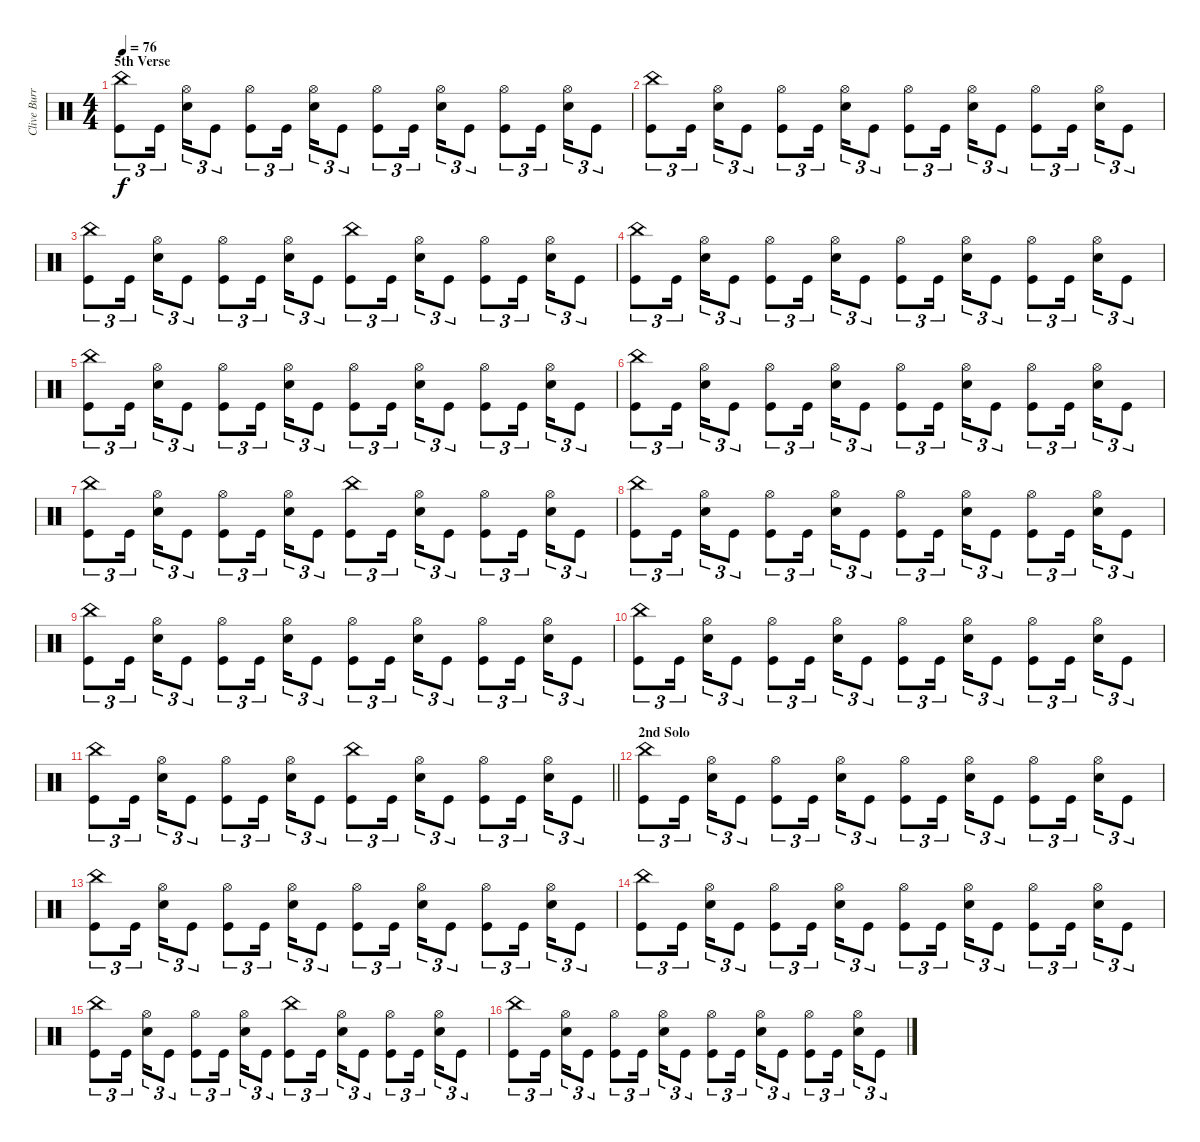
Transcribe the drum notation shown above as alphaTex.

\track ("Clive Burr" "Clive Burr") {instrument percussion}
\staff {score}
\articulation defaults
\ts (4 4)
\section ("" "5th Verse")
\tempo 76
\clef neutral
\ks c
("China (hit)" "Kick (hit)").8{tu (3 2) dy f} "Kick (hit)".16{tu (3 2) beam splitsecondary} ("Hi-Hat (open)" "Electric Snare (hit)").16{tu (3 2)} "Kick (hit)".8{tu (3 2)} ("Hi-Hat (open)" "Kick (hit)").8{tu (3 2)} "Kick (hit)".16{tu (3 2) beam splitsecondary} ("Hi-Hat (open)" "Electric Snare (hit)").16{tu (3 2)} "Kick (hit)".8{tu (3 2)} ("Hi-Hat (open)" "Kick (hit)").8{tu (3 2)} "Kick (hit)".16{tu (3 2) beam splitsecondary} ("Hi-Hat (open)" "Electric Snare (hit)").16{tu (3 2)} "Kick (hit)".8{tu (3 2)} ("Hi-Hat (open)" "Kick (hit)").8{tu (3 2)} "Kick (hit)".16{tu (3 2) beam splitsecondary} ("Hi-Hat (open)" "Electric Snare (hit)").16{tu (3 2)} "Kick (hit)".8{tu (3 2)} |
("China (hit)" "Kick (hit)").8{tu (3 2)} "Kick (hit)".16{tu (3 2) beam splitsecondary} ("Hi-Hat (open)" "Electric Snare (hit)").16{tu (3 2)} "Kick (hit)".8{tu (3 2)} ("Hi-Hat (open)" "Kick (hit)").8{tu (3 2)} "Kick (hit)".16{tu (3 2) beam splitsecondary} ("Hi-Hat (open)" "Electric Snare (hit)").16{tu (3 2)} "Kick (hit)".8{tu (3 2)} ("Hi-Hat (open)" "Kick (hit)").8{tu (3 2)} "Kick (hit)".16{tu (3 2) beam splitsecondary} ("Hi-Hat (open)" "Electric Snare (hit)").16{tu (3 2)} "Kick (hit)".8{tu (3 2)} ("Hi-Hat (open)" "Kick (hit)").8{tu (3 2)} "Kick (hit)".16{tu (3 2) beam splitsecondary} ("Hi-Hat (open)" "Electric Snare (hit)").16{tu (3 2)} "Kick (hit)".8{tu (3 2)} |
("China (hit)" "Kick (hit)").8{tu (3 2)} "Kick (hit)".16{tu (3 2) beam splitsecondary} ("Hi-Hat (open)" "Electric Snare (hit)").16{tu (3 2)} "Kick (hit)".8{tu (3 2)} ("Hi-Hat (open)" "Kick (hit)").8{tu (3 2)} "Kick (hit)".16{tu (3 2) beam splitsecondary} ("Hi-Hat (open)" "Electric Snare (hit)").16{tu (3 2)} "Kick (hit)".8{tu (3 2)} ("China (hit)" "Kick (hit)").8{tu (3 2)} "Kick (hit)".16{tu (3 2) beam splitsecondary} ("Hi-Hat (open)" "Electric Snare (hit)").16{tu (3 2)} "Kick (hit)".8{tu (3 2)} ("Hi-Hat (open)" "Kick (hit)").8{tu (3 2)} "Kick (hit)".16{tu (3 2) beam splitsecondary} ("Hi-Hat (open)" "Electric Snare (hit)").16{tu (3 2)} "Kick (hit)".8{tu (3 2)} |
("China (hit)" "Kick (hit)").8{tu (3 2)} "Kick (hit)".16{tu (3 2) beam splitsecondary} ("Hi-Hat (open)" "Electric Snare (hit)").16{tu (3 2)} "Kick (hit)".8{tu (3 2)} ("Hi-Hat (open)" "Kick (hit)").8{tu (3 2)} "Kick (hit)".16{tu (3 2) beam splitsecondary} ("Hi-Hat (open)" "Electric Snare (hit)").16{tu (3 2)} "Kick (hit)".8{tu (3 2)} ("Hi-Hat (open)" "Kick (hit)").8{tu (3 2)} "Kick (hit)".16{tu (3 2) beam splitsecondary} ("Hi-Hat (open)" "Electric Snare (hit)").16{tu (3 2)} "Kick (hit)".8{tu (3 2)} ("Hi-Hat (open)" "Kick (hit)").8{tu (3 2)} "Kick (hit)".16{tu (3 2) beam splitsecondary} ("Hi-Hat (open)" "Electric Snare (hit)").16{tu (3 2)} "Kick (hit)".8{tu (3 2)} |
("China (hit)" "Kick (hit)").8{tu (3 2)} "Kick (hit)".16{tu (3 2) beam splitsecondary} ("Hi-Hat (open)" "Electric Snare (hit)").16{tu (3 2)} "Kick (hit)".8{tu (3 2)} ("Hi-Hat (open)" "Kick (hit)").8{tu (3 2)} "Kick (hit)".16{tu (3 2) beam splitsecondary} ("Hi-Hat (open)" "Electric Snare (hit)").16{tu (3 2)} "Kick (hit)".8{tu (3 2)} ("Hi-Hat (open)" "Kick (hit)").8{tu (3 2)} "Kick (hit)".16{tu (3 2) beam splitsecondary} ("Hi-Hat (open)" "Electric Snare (hit)").16{tu (3 2)} "Kick (hit)".8{tu (3 2)} ("Hi-Hat (open)" "Kick (hit)").8{tu (3 2)} "Kick (hit)".16{tu (3 2) beam splitsecondary} ("Hi-Hat (open)" "Electric Snare (hit)").16{tu (3 2)} "Kick (hit)".8{tu (3 2)} |
("China (hit)" "Kick (hit)").8{tu (3 2)} "Kick (hit)".16{tu (3 2) beam splitsecondary} ("Hi-Hat (open)" "Electric Snare (hit)").16{tu (3 2)} "Kick (hit)".8{tu (3 2)} ("Hi-Hat (open)" "Kick (hit)").8{tu (3 2)} "Kick (hit)".16{tu (3 2) beam splitsecondary} ("Hi-Hat (open)" "Electric Snare (hit)").16{tu (3 2)} "Kick (hit)".8{tu (3 2)} ("Hi-Hat (open)" "Kick (hit)").8{tu (3 2)} "Kick (hit)".16{tu (3 2) beam splitsecondary} ("Hi-Hat (open)" "Electric Snare (hit)").16{tu (3 2)} "Kick (hit)".8{tu (3 2)} ("Hi-Hat (open)" "Kick (hit)").8{tu (3 2)} "Kick (hit)".16{tu (3 2) beam splitsecondary} ("Hi-Hat (open)" "Electric Snare (hit)").16{tu (3 2)} "Kick (hit)".8{tu (3 2)} |
("China (hit)" "Kick (hit)").8{tu (3 2)} "Kick (hit)".16{tu (3 2) beam splitsecondary} ("Hi-Hat (open)" "Electric Snare (hit)").16{tu (3 2)} "Kick (hit)".8{tu (3 2)} ("Hi-Hat (open)" "Kick (hit)").8{tu (3 2)} "Kick (hit)".16{tu (3 2) beam splitsecondary} ("Hi-Hat (open)" "Electric Snare (hit)").16{tu (3 2)} "Kick (hit)".8{tu (3 2)} ("China (hit)" "Kick (hit)").8{tu (3 2)} "Kick (hit)".16{tu (3 2) beam splitsecondary} ("Hi-Hat (open)" "Electric Snare (hit)").16{tu (3 2)} "Kick (hit)".8{tu (3 2)} ("Hi-Hat (open)" "Kick (hit)").8{tu (3 2)} "Kick (hit)".16{tu (3 2) beam splitsecondary} ("Hi-Hat (open)" "Electric Snare (hit)").16{tu (3 2)} "Kick (hit)".8{tu (3 2)} |
("China (hit)" "Kick (hit)").8{tu (3 2)} "Kick (hit)".16{tu (3 2) beam splitsecondary} ("Hi-Hat (open)" "Electric Snare (hit)").16{tu (3 2)} "Kick (hit)".8{tu (3 2)} ("Hi-Hat (open)" "Kick (hit)").8{tu (3 2)} "Kick (hit)".16{tu (3 2) beam splitsecondary} ("Hi-Hat (open)" "Electric Snare (hit)").16{tu (3 2)} "Kick (hit)".8{tu (3 2)} ("Hi-Hat (open)" "Kick (hit)").8{tu (3 2)} "Kick (hit)".16{tu (3 2) beam splitsecondary} ("Hi-Hat (open)" "Electric Snare (hit)").16{tu (3 2)} "Kick (hit)".8{tu (3 2)} ("Hi-Hat (open)" "Kick (hit)").8{tu (3 2)} "Kick (hit)".16{tu (3 2) beam splitsecondary} ("Hi-Hat (open)" "Electric Snare (hit)").16{tu (3 2)} "Kick (hit)".8{tu (3 2)} |
("China (hit)" "Kick (hit)").8{tu (3 2)} "Kick (hit)".16{tu (3 2) beam splitsecondary} ("Hi-Hat (open)" "Electric Snare (hit)").16{tu (3 2)} "Kick (hit)".8{tu (3 2)} ("Hi-Hat (open)" "Kick (hit)").8{tu (3 2)} "Kick (hit)".16{tu (3 2) beam splitsecondary} ("Hi-Hat (open)" "Electric Snare (hit)").16{tu (3 2)} "Kick (hit)".8{tu (3 2)} ("Hi-Hat (open)" "Kick (hit)").8{tu (3 2)} "Kick (hit)".16{tu (3 2) beam splitsecondary} ("Hi-Hat (open)" "Electric Snare (hit)").16{tu (3 2)} "Kick (hit)".8{tu (3 2)} ("Hi-Hat (open)" "Kick (hit)").8{tu (3 2)} "Kick (hit)".16{tu (3 2) beam splitsecondary} ("Hi-Hat (open)" "Electric Snare (hit)").16{tu (3 2)} "Kick (hit)".8{tu (3 2)} |
("China (hit)" "Kick (hit)").8{tu (3 2)} "Kick (hit)".16{tu (3 2) beam splitsecondary} ("Hi-Hat (open)" "Electric Snare (hit)").16{tu (3 2)} "Kick (hit)".8{tu (3 2)} ("Hi-Hat (open)" "Kick (hit)").8{tu (3 2)} "Kick (hit)".16{tu (3 2) beam splitsecondary} ("Hi-Hat (open)" "Electric Snare (hit)").16{tu (3 2)} "Kick (hit)".8{tu (3 2)} ("Hi-Hat (open)" "Kick (hit)").8{tu (3 2)} "Kick (hit)".16{tu (3 2) beam splitsecondary} ("Hi-Hat (open)" "Electric Snare (hit)").16{tu (3 2)} "Kick (hit)".8{tu (3 2)} ("Hi-Hat (open)" "Kick (hit)").8{tu (3 2)} "Kick (hit)".16{tu (3 2) beam splitsecondary} ("Hi-Hat (open)" "Electric Snare (hit)").16{tu (3 2)} "Kick (hit)".8{tu (3 2)} |
\barLineRight lightlight
("China (hit)" "Kick (hit)").8{tu (3 2)} "Kick (hit)".16{tu (3 2) beam splitsecondary} ("Hi-Hat (open)" "Electric Snare (hit)").16{tu (3 2)} "Kick (hit)".8{tu (3 2)} ("Hi-Hat (open)" "Kick (hit)").8{tu (3 2)} "Kick (hit)".16{tu (3 2) beam splitsecondary} ("Hi-Hat (open)" "Electric Snare (hit)").16{tu (3 2)} "Kick (hit)".8{tu (3 2)} ("China (hit)" "Kick (hit)").8{tu (3 2)} "Kick (hit)".16{tu (3 2) beam splitsecondary} ("Hi-Hat (open)" "Electric Snare (hit)").16{tu (3 2)} "Kick (hit)".8{tu (3 2)} ("Hi-Hat (open)" "Kick (hit)").8{tu (3 2)} "Kick (hit)".16{tu (3 2) beam splitsecondary} ("Hi-Hat (open)" "Electric Snare (hit)").16{tu (3 2)} "Kick (hit)".8{tu (3 2)} |
\section ("" "2nd Solo")
("China (hit)" "Kick (hit)").8{tu (3 2)} "Kick (hit)".16{tu (3 2) beam splitsecondary} ("Hi-Hat (open)" "Electric Snare (hit)").16{tu (3 2)} "Kick (hit)".8{tu (3 2)} ("Hi-Hat (open)" "Kick (hit)").8{tu (3 2)} "Kick (hit)".16{tu (3 2) beam splitsecondary} ("Hi-Hat (open)" "Electric Snare (hit)").16{tu (3 2)} "Kick (hit)".8{tu (3 2)} ("Hi-Hat (open)" "Kick (hit)").8{tu (3 2)} "Kick (hit)".16{tu (3 2) beam splitsecondary} ("Hi-Hat (open)" "Electric Snare (hit)").16{tu (3 2)} "Kick (hit)".8{tu (3 2)} ("Hi-Hat (open)" "Kick (hit)").8{tu (3 2)} "Kick (hit)".16{tu (3 2) beam splitsecondary} ("Hi-Hat (open)" "Electric Snare (hit)").16{tu (3 2)} "Kick (hit)".8{tu (3 2)} |
("China (hit)" "Kick (hit)").8{tu (3 2)} "Kick (hit)".16{tu (3 2) beam splitsecondary} ("Hi-Hat (open)" "Electric Snare (hit)").16{tu (3 2)} "Kick (hit)".8{tu (3 2)} ("Hi-Hat (open)" "Kick (hit)").8{tu (3 2)} "Kick (hit)".16{tu (3 2) beam splitsecondary} ("Hi-Hat (open)" "Electric Snare (hit)").16{tu (3 2)} "Kick (hit)".8{tu (3 2)} ("Hi-Hat (open)" "Kick (hit)").8{tu (3 2)} "Kick (hit)".16{tu (3 2) beam splitsecondary} ("Hi-Hat (open)" "Electric Snare (hit)").16{tu (3 2)} "Kick (hit)".8{tu (3 2)} ("Hi-Hat (open)" "Kick (hit)").8{tu (3 2)} "Kick (hit)".16{tu (3 2) beam splitsecondary} ("Hi-Hat (open)" "Electric Snare (hit)").16{tu (3 2)} "Kick (hit)".8{tu (3 2)} |
("China (hit)" "Kick (hit)").8{tu (3 2)} "Kick (hit)".16{tu (3 2) beam splitsecondary} ("Hi-Hat (open)" "Electric Snare (hit)").16{tu (3 2)} "Kick (hit)".8{tu (3 2)} ("Hi-Hat (open)" "Kick (hit)").8{tu (3 2)} "Kick (hit)".16{tu (3 2) beam splitsecondary} ("Hi-Hat (open)" "Electric Snare (hit)").16{tu (3 2)} "Kick (hit)".8{tu (3 2)} ("Hi-Hat (open)" "Kick (hit)").8{tu (3 2)} "Kick (hit)".16{tu (3 2) beam splitsecondary} ("Hi-Hat (open)" "Electric Snare (hit)").16{tu (3 2)} "Kick (hit)".8{tu (3 2)} ("Hi-Hat (open)" "Kick (hit)").8{tu (3 2)} "Kick (hit)".16{tu (3 2) beam splitsecondary} ("Hi-Hat (open)" "Electric Snare (hit)").16{tu (3 2)} "Kick (hit)".8{tu (3 2)} |
("China (hit)" "Kick (hit)").8{tu (3 2)} "Kick (hit)".16{tu (3 2) beam splitsecondary} ("Hi-Hat (open)" "Electric Snare (hit)").16{tu (3 2)} "Kick (hit)".8{tu (3 2)} ("Hi-Hat (open)" "Kick (hit)").8{tu (3 2)} "Kick (hit)".16{tu (3 2) beam splitsecondary} ("Hi-Hat (open)" "Electric Snare (hit)").16{tu (3 2)} "Kick (hit)".8{tu (3 2)} ("China (hit)" "Kick (hit)").8{tu (3 2)} "Kick (hit)".16{tu (3 2) beam splitsecondary} ("Hi-Hat (open)" "Electric Snare (hit)").16{tu (3 2)} "Kick (hit)".8{tu (3 2)} ("Hi-Hat (open)" "Kick (hit)").8{tu (3 2)} "Kick (hit)".16{tu (3 2) beam splitsecondary} ("Hi-Hat (open)" "Electric Snare (hit)").16{tu (3 2)} "Kick (hit)".8{tu (3 2)} |
("China (hit)" "Kick (hit)").8{tu (3 2)} "Kick (hit)".16{tu (3 2) beam splitsecondary} ("Hi-Hat (open)" "Electric Snare (hit)").16{tu (3 2)} "Kick (hit)".8{tu (3 2)} ("Hi-Hat (open)" "Kick (hit)").8{tu (3 2)} "Kick (hit)".16{tu (3 2) beam splitsecondary} ("Hi-Hat (open)" "Electric Snare (hit)").16{tu (3 2)} "Kick (hit)".8{tu (3 2)} ("Hi-Hat (open)" "Kick (hit)").8{tu (3 2)} "Kick (hit)".16{tu (3 2) beam splitsecondary} ("Hi-Hat (open)" "Electric Snare (hit)").16{tu (3 2)} "Kick (hit)".8{tu (3 2)} ("Hi-Hat (open)" "Kick (hit)").8{tu (3 2)} "Kick (hit)".16{tu (3 2) beam splitsecondary} ("Hi-Hat (open)" "Electric Snare (hit)").16{tu (3 2)} "Kick (hit)".8{tu (3 2)}
